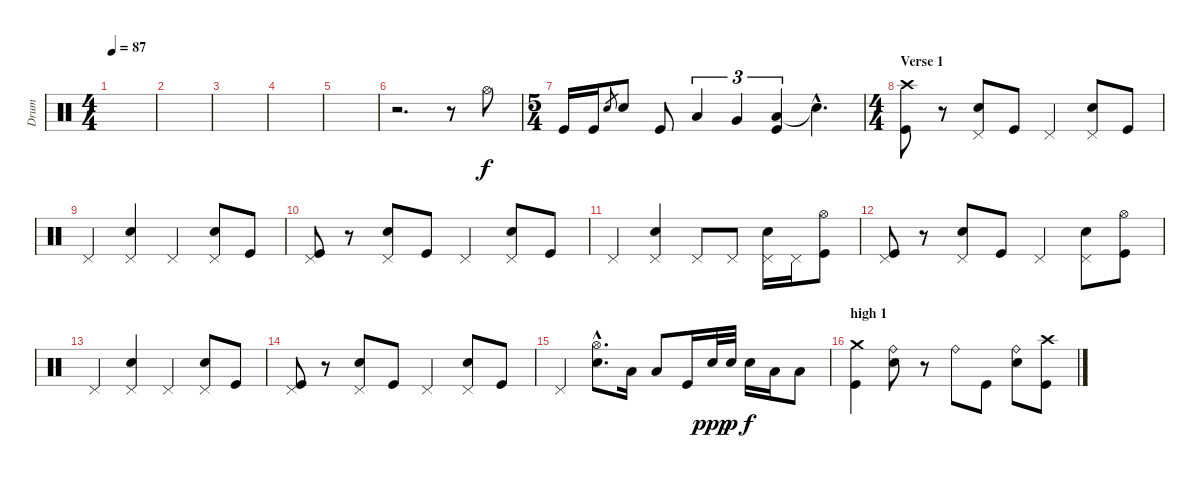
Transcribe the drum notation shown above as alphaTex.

\track ("Drum" "Drum") {instrument percussion}
\staff {score}
\articulation defaults
\ts (4 4)
\tempo 87
\clef neutral
\ks c
|
|
|
|
|
r.2{d} r.8 "Hi-Hat (open)".8 |
\ts (5 4)
"Kick (hit)".16 "Kick (hit)".16 "Snare (hit) 2".8{gr} "Snare (hit) 2".8 "Kick (hit)".8 "Low Tom (hit)".4{tu (3 2)} "Very Low Tom (hit)".4{tu (3 2)} ("Low Floor Tom (hit)" "Kick (hit)").4{tu (3 2)} "Snare (hit)"{hac t}.4{d} |
\ts (4 4)
\section ("" "Verse 1")
("Crash high (hit)" "Kick (hit)").8 r.8 ("Pedal Hi-Hat (hit)" "Snare (hit) 2").8 "Kick (hit)".8 "Pedal Hi-Hat (hit)".4 ("Pedal Hi-Hat (hit)" "Snare (hit) 2").8 "Kick (hit)".8 |
"Pedal Hi-Hat (hit)".4 ("Pedal Hi-Hat (hit)" "Snare (hit) 2").4 "Pedal Hi-Hat (hit)".4 ("Pedal Hi-Hat (hit)" "Snare (hit) 2").8 "Kick (hit)".8 |
("Pedal Hi-Hat (hit)" "Kick (hit)").8 r.8 ("Pedal Hi-Hat (hit)" "Snare (hit) 2").8 "Kick (hit)".8 "Pedal Hi-Hat (hit)".4 ("Pedal Hi-Hat (hit)" "Snare (hit) 2").8 "Kick (hit)".8 |
"Pedal Hi-Hat (hit)".4 ("Pedal Hi-Hat (hit)" "Snare (hit) 2").4 "Pedal Hi-Hat (hit)".8 "Pedal Hi-Hat (hit)".8 ("Pedal Hi-Hat (hit)" "Snare (hit) 2").16 "Pedal Hi-Hat (hit)".16 ("Hi-Hat (open)" "Kick (hit)").8 |
("Pedal Hi-Hat (hit)" "Kick (hit)").8 r.8 ("Pedal Hi-Hat (hit)" "Snare (hit) 2").8 "Kick (hit)".8 "Pedal Hi-Hat (hit)".4 ("Pedal Hi-Hat (hit)" "Snare (hit) 2").8 ("Hi-Hat (open)" "Kick (hit)").8 |
"Pedal Hi-Hat (hit)".4 ("Pedal Hi-Hat (hit)" "Snare (hit) 2").4 "Pedal Hi-Hat (hit)".4 ("Pedal Hi-Hat (hit)" "Snare (hit) 2").8 "Kick (hit)".8 |
("Pedal Hi-Hat (hit)" "Kick (hit)").8 r.8 ("Pedal Hi-Hat (hit)" "Snare (hit) 2").8 "Kick (hit)".8 "Pedal Hi-Hat (hit)".4 ("Pedal Hi-Hat (hit)" "Snare (hit) 2").8 "Kick (hit)".8 |
"Pedal Hi-Hat (hit)".4 ("Hi-Hat (open)"{hac} "Snare (hit) 2"{hac}).8{d} "Low Tom (hit)".16 "Low Tom (hit)".8 "Kick (hit)".16 "Snare (hit) 2".32{dy ppp} "Snare (hit) 2".32{dy p} "Snare (hit) 2".16{dy f} "Low Tom (hit)".16 "Low Tom (hit)".8 |
\section ("" "high 1")
("Crash medium (hit)" "Kick (hit)").4 ("Ride (bell)" "Snare (hit) 2").8 r.8 "Ride (bell)".8 "Kick (hit)".8 ("Ride (bell)" "Snare (hit) 2").8 ("Crash high (hit)" "Kick (hit)").8
